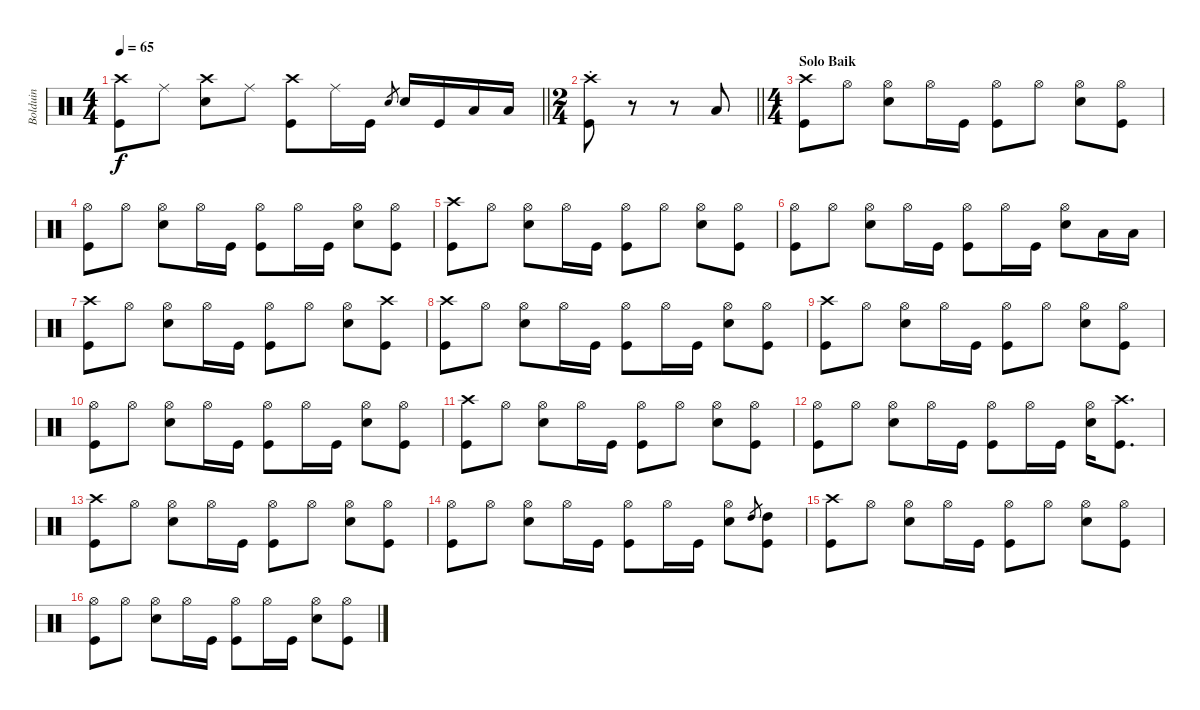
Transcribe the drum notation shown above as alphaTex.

\track ("Bolduin" "Bolduin") {instrument percussion}
\staff {score}
\articulation defaults
\ts (4 4)
\tempo 65
\clef neutral
\barLineRight lightlight
\ks c
("Kick (hit)" "Crash high (hit)").8{dy f} "Ride (middle)".8 ("Crash high (hit)" "Snare (hit) 2").8 "Ride (middle)".8 ("Kick (hit)" "Crash high (hit)").8 "Ride (middle)".16 "Kick (hit)".16 "Snare (hit) 2".8{gr} "Snare (hit) 2".16 "Kick (hit)".16 "Low Tom (hit)".16 "Low Tom (hit)".16 |
\ts (2 4)
\barLineRight lightlight
("Kick (hit)" "Crash high (hit)"{st}).8 r.8 r.8 "Low Tom (hit)".8 |
\ts (4 4)
\section ("" "Solo Baik")
("Kick (hit)" "Crash high (hit)").8 "Hi-Hat (open)".8 ("Hi-Hat (open)" "Snare (hit) 2").8 "Hi-Hat (open)".16 "Kick (hit)".16 ("Kick (hit)" "Hi-Hat (open)").8 "Hi-Hat (open)".8 ("Hi-Hat (open)" "Snare (hit) 2").8 ("Hi-Hat (open)" "Kick (hit)").8 |
("Kick (hit)" "Hi-Hat (open)").8 "Hi-Hat (open)".8 ("Hi-Hat (open)" "Snare (hit) 2").8 "Hi-Hat (open)".16 "Kick (hit)".16 ("Kick (hit)" "Hi-Hat (open)").8 "Hi-Hat (open)".16 "Kick (hit)".16 ("Hi-Hat (open)" "Snare (hit) 2").8 ("Hi-Hat (open)" "Kick (hit)").8 |
("Kick (hit)" "Crash high (hit)").8 "Hi-Hat (open)".8 ("Hi-Hat (open)" "Snare (hit) 2").8 "Hi-Hat (open)".16 "Kick (hit)".16 ("Kick (hit)" "Hi-Hat (open)").8 "Hi-Hat (open)".8 ("Hi-Hat (open)" "Snare (hit) 2").8 ("Hi-Hat (open)" "Kick (hit)").8 |
("Kick (hit)" "Hi-Hat (open)").8 "Hi-Hat (open)".8 ("Hi-Hat (open)" "Snare (hit) 2").8 "Hi-Hat (open)".16 "Kick (hit)".16 ("Kick (hit)" "Hi-Hat (open)").8 "Hi-Hat (open)".16 "Kick (hit)".16 ("Hi-Hat (open)" "Snare (hit) 2").8 "Low Tom (hit)".16 "Low Tom (hit)".16 |
("Kick (hit)" "Crash high (hit)").8 "Hi-Hat (open)".8 ("Hi-Hat (open)" "Snare (hit) 2").8 "Hi-Hat (open)".16 "Kick (hit)".16 ("Kick (hit)" "Hi-Hat (open)").8 "Hi-Hat (open)".8 ("Hi-Hat (open)" "Snare (hit) 2").8 ("Crash high (hit)" "Kick (hit)").8 |
("Kick (hit)" "Crash high (hit)").8 "Hi-Hat (open)".8 ("Hi-Hat (open)" "Snare (hit) 2").8 "Hi-Hat (open)".16 "Kick (hit)".16 ("Kick (hit)" "Hi-Hat (open)").8 "Hi-Hat (open)".16 "Kick (hit)".16 ("Hi-Hat (open)" "Snare (hit) 2").8 ("Hi-Hat (open)" "Kick (hit)").8 |
("Kick (hit)" "Crash high (hit)").8 "Hi-Hat (open)".8 ("Hi-Hat (open)" "Snare (hit) 2").8 "Hi-Hat (open)".16 "Kick (hit)".16 ("Kick (hit)" "Hi-Hat (open)").8 "Hi-Hat (open)".8 ("Hi-Hat (open)" "Snare (hit) 2").8 ("Hi-Hat (open)" "Kick (hit)").8 |
("Kick (hit)" "Hi-Hat (open)").8 "Hi-Hat (open)".8 ("Hi-Hat (open)" "Snare (hit) 2").8 "Hi-Hat (open)".16 "Kick (hit)".16 ("Kick (hit)" "Hi-Hat (open)").8 "Hi-Hat (open)".16 "Kick (hit)".16 ("Hi-Hat (open)" "Snare (hit) 2").8 ("Hi-Hat (open)" "Kick (hit)").8 |
("Kick (hit)" "Crash high (hit)").8 "Hi-Hat (open)".8 ("Hi-Hat (open)" "Snare (hit) 2").8 "Hi-Hat (open)".16 "Kick (hit)".16 ("Kick (hit)" "Hi-Hat (open)").8 "Hi-Hat (open)".8 ("Hi-Hat (open)" "Snare (hit) 2").8 ("Hi-Hat (open)" "Kick (hit)").8 |
("Kick (hit)" "Hi-Hat (open)").8 "Hi-Hat (open)".8 ("Hi-Hat (open)" "Snare (hit) 2").8 "Hi-Hat (open)".16 "Kick (hit)".16 ("Kick (hit)" "Hi-Hat (open)").8 "Hi-Hat (open)".16 "Kick (hit)".16 ("Hi-Hat (open)" "Snare (hit) 2").16 ("Crash high (hit)" "Kick (hit)").8{d} |
("Kick (hit)" "Crash high (hit)").8 "Hi-Hat (open)".8 ("Hi-Hat (open)" "Snare (hit) 2").8 "Hi-Hat (open)".16 "Kick (hit)".16 ("Kick (hit)" "Hi-Hat (open)").8 "Hi-Hat (open)".8 ("Hi-Hat (open)" "Snare (hit) 2").8 ("Hi-Hat (open)" "Kick (hit)").8 |
("Kick (hit)" "Hi-Hat (open)").8 "Hi-Hat (open)".8 ("Hi-Hat (open)" "Snare (hit) 2").8 "Hi-Hat (open)".16 "Kick (hit)".16 ("Kick (hit)" "Hi-Hat (open)").8 "Hi-Hat (open)".16 "Kick (hit)".16 ("Hi-Hat (open)" "Snare (hit) 2").8 "High Tom (hit)".8{gr} ("High Tom (hit)" "Kick (hit)").8 |
("Kick (hit)" "Crash high (hit)").8 "Hi-Hat (open)".8 ("Hi-Hat (open)" "Snare (hit) 2").8 "Hi-Hat (open)".16 "Kick (hit)".16 ("Kick (hit)" "Hi-Hat (open)").8 "Hi-Hat (open)".8 ("Hi-Hat (open)" "Snare (hit) 2").8 ("Hi-Hat (open)" "Kick (hit)").8 |
("Kick (hit)" "Hi-Hat (open)").8 "Hi-Hat (open)".8 ("Hi-Hat (open)" "Snare (hit) 2").8 "Hi-Hat (open)".16 "Kick (hit)".16 ("Kick (hit)" "Hi-Hat (open)").8 "Hi-Hat (open)".16 "Kick (hit)".16 ("Hi-Hat (open)" "Snare (hit) 2").8 ("Hi-Hat (open)" "Kick (hit)").8
